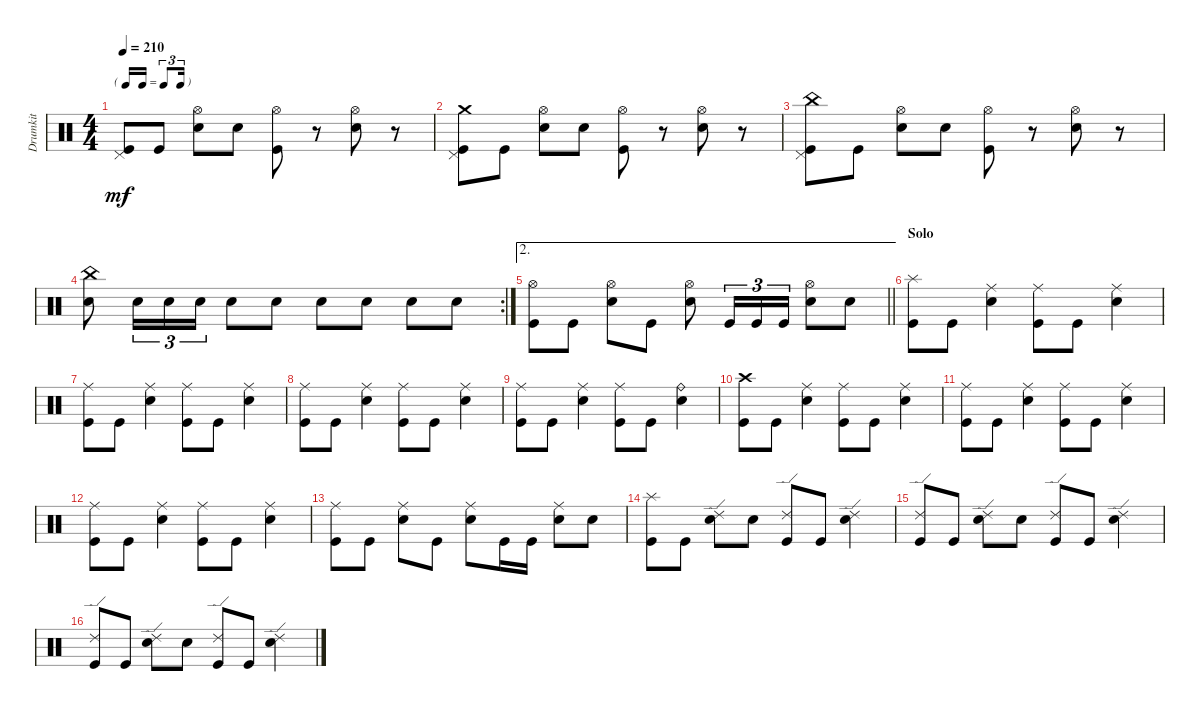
\track ("Drumkit" "Drumkit") {instrument percussion}
\staff {score}
\articulation defaults
\ts (4 4)
\tf triplet16th
\tempo 210
\clef neutral
\ks c
("Pedal Hi-Hat (hit)" "Kick (hit)").8{dy mf} "Kick (hit)".8 ("Snare (hit) 2" "Hi-Hat (open)").8 "Snare (hit) 2".8 ("Hi-Hat (open)" "Kick (hit)").8 r.8 ("Hi-Hat (open)" "Snare (hit) 2").8 r.8 |
("Pedal Hi-Hat (hit)" "Kick (hit)" "Crash medium (hit)").8 "Kick (hit)".8 ("Snare (hit) 2" "Hi-Hat (open)").8 "Snare (hit) 2".8 ("Hi-Hat (open)" "Kick (hit)").8 r.8 ("Hi-Hat (open)" "Snare (hit) 2").8 r.8 |
("Pedal Hi-Hat (hit)" "Kick (hit)" "China (hit)").8 "Kick (hit)".8 ("Snare (hit) 2" "Hi-Hat (open)").8 "Snare (hit) 2".8 ("Hi-Hat (open)" "Kick (hit)").8 r.8 ("Hi-Hat (open)" "Snare (hit) 2").8 r.8 |
\rc 2
("Snare (hit) 2" "China (hit)").8 "Snare (hit) 2".16{tu (3 2)} "Snare (hit) 2".16{tu (3 2)} "Snare (hit) 2".16{tu (3 2)} "Snare (hit) 2".8 "Snare (hit) 2".8 "Snare (hit) 2".8 "Snare (hit) 2".8 "Snare (hit) 2".8 "Snare (hit) 2".8 |
\ae 2
\barLineRight lightlight
("Kick (hit)" "Hi-Hat (open)").8 "Kick (hit)".8 ("Snare (hit) 2" "Hi-Hat (open)").8 "Kick (hit)".8 ("Snare (hit) 2" "Hi-Hat (open)").8 "Kick (hit)".16{tu (3 2)} "Kick (hit)".16{tu (3 2)} "Kick (hit)".16{tu (3 2)} ("Hi-Hat (open)" "Snare (hit) 2").8 "Snare (hit) 2".8 |
\section ("" "Solo")
("Kick (hit)" "Splash (hit)").8 "Kick (hit)".8 ("Snare (hit) 2" "Ride (middle)").4 ("Kick (hit)" "Ride (middle)").8 "Kick (hit)".8 ("Snare (hit) 2" "Ride (middle)").4 |
("Kick (hit)" "Ride (middle)").8 "Kick (hit)".8 ("Snare (hit) 2" "Ride (middle)").4 ("Kick (hit)" "Ride (middle)").8 "Kick (hit)".8 ("Snare (hit) 2" "Ride (middle)").4 |
("Kick (hit)" "Ride (middle)").8 "Kick (hit)".8 ("Snare (hit) 2" "Ride (middle)").4 ("Kick (hit)" "Ride (middle)").8 "Kick (hit)".8 ("Snare (hit) 2" "Ride (middle)").4 |
("Kick (hit)" "Ride (middle)").8 "Kick (hit)".8 ("Snare (hit) 2" "Ride (middle)").4 ("Kick (hit)" "Ride (middle)").8 "Kick (hit)".8 ("Snare (hit) 2" "Ride (bell)").4 |
("Kick (hit)" "Crash high (hit)").8 "Kick (hit)".8 ("Snare (hit) 2" "Ride (middle)").4 ("Kick (hit)" "Ride (middle)").8 "Kick (hit)".8 ("Snare (hit) 2" "Ride (middle)").4 |
("Kick (hit)" "Ride (middle)").8 "Kick (hit)".8 ("Snare (hit) 2" "Ride (middle)").4 ("Kick (hit)" "Ride (middle)").8 "Kick (hit)".8 ("Snare (hit) 2" "Ride (middle)").4 |
("Kick (hit)" "Ride (middle)").8 "Kick (hit)".8 ("Snare (hit) 2" "Ride (middle)").4 ("Kick (hit)" "Ride (middle)").8 "Kick (hit)".8 ("Snare (hit) 2" "Ride (middle)").4 |
("Kick (hit)" "Ride (middle)").8 "Kick (hit)".8 ("Snare (hit) 2" "Ride (middle)").8 "Kick (hit)".8 ("Snare (hit) 2" "Ride (middle)").8 "Kick (hit)".16 "Kick (hit)".16 ("Snare (hit) 2" "Ride (middle)").8 "Snare (hit) 2".8 |
("Kick (hit)" "Splash (hit)").8 "Kick (hit)".8 ("Snare (hit) 2" "Ride (edge) 2").8 "Snare (hit) 2".8 ("Kick (hit)" "Ride (edge) 2").8 "Kick (hit)".8 ("Snare (hit) 2" "Ride (edge) 2").4 |
("Kick (hit)" "Ride (edge) 2").8 "Kick (hit)".8 ("Snare (hit) 2" "Ride (edge) 2").8 "Snare (hit) 2".8 ("Kick (hit)" "Ride (edge) 2").8 "Kick (hit)".8 ("Snare (hit) 2" "Ride (edge) 2").4 |
("Kick (hit)" "Ride (edge) 2").8 "Kick (hit)".8 ("Snare (hit) 2" "Ride (edge) 2").8 "Snare (hit) 2".8 ("Kick (hit)" "Ride (edge) 2").8 "Kick (hit)".8 ("Snare (hit) 2" "Ride (edge) 2").4
